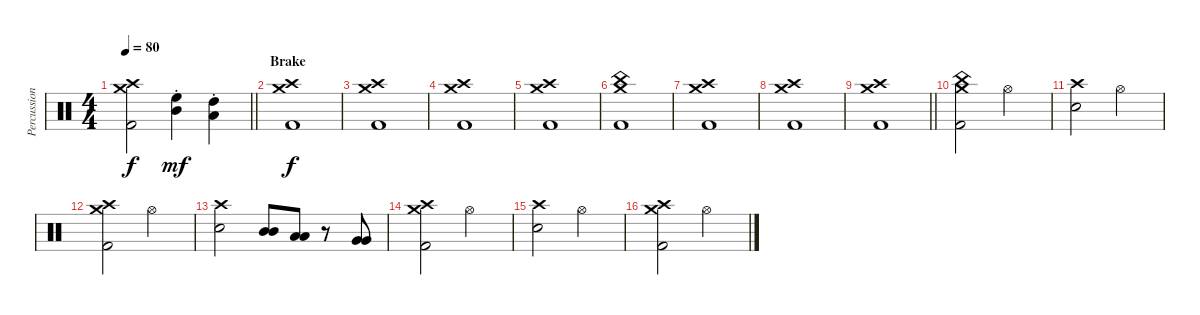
\track ("Percussioni" "Percussion") {instrument percussion}
\staff {score}
\articulation defaults
\ts (4 4)
\tempo 80
\clef neutral
\barLineRight lightlight
\ks c
("Crash high (hit)" "Crash medium (hit)" "Kick (hit) 2").2{dy f} ("Mid Tom (hit)"{st} "High Floor Tom (hit)"{st}).4{dy mf} ("Low Tom (hit)"{st} "High Tom (hit)"{st}).4 |
\section ("" "Brake")
("Crash high (hit)" "Crash medium (hit)" "Kick (hit) 2").1{dy f} |
("Crash high (hit)" "Crash medium (hit)" "Kick (hit) 2").1 |
("Crash high (hit)" "Crash medium (hit)" "Kick (hit) 2").1 |
("Crash high (hit)" "Crash medium (hit)" "Kick (hit) 2").1 |
("China (hit)" "Crash medium (hit)" "Kick (hit) 2").1 |
("Crash high (hit)" "Crash medium (hit)" "Kick (hit) 2").1 |
("Crash high (hit)" "Crash medium (hit)" "Kick (hit) 2").1 |
\barLineRight lightlight
("Crash high (hit)" "Crash medium (hit)" "Kick (hit) 2").1 |
\section ("" "")
("China (hit)" "Crash medium (hit)" "Kick (hit) 2").2 "Hi-Hat (open)".2 |
("Crash high (hit)" "Snare (hit) 2").2 "Hi-Hat (open)".2 |
("Crash high (hit)" "Crash medium (hit)" "Kick (hit) 2").2 "Hi-Hat (open)".2 |
("Crash high (hit)" "Snare (hit) 2").2 ("Mid Tom (hit)" "Mid Tom (hit)").8 ("Low Tom (hit)" "Low Tom (hit)").8 r.8 ("Very Low Tom (hit)" "Very Low Tom (hit)").8 |
("Crash high (hit)" "Crash medium (hit)" "Kick (hit) 2").2 "Hi-Hat (open)".2 |
("Crash high (hit)" "Snare (hit) 2").2 "Hi-Hat (open)".2 |
("Crash high (hit)" "Crash medium (hit)" "Kick (hit) 2").2 "Hi-Hat (open)".2
